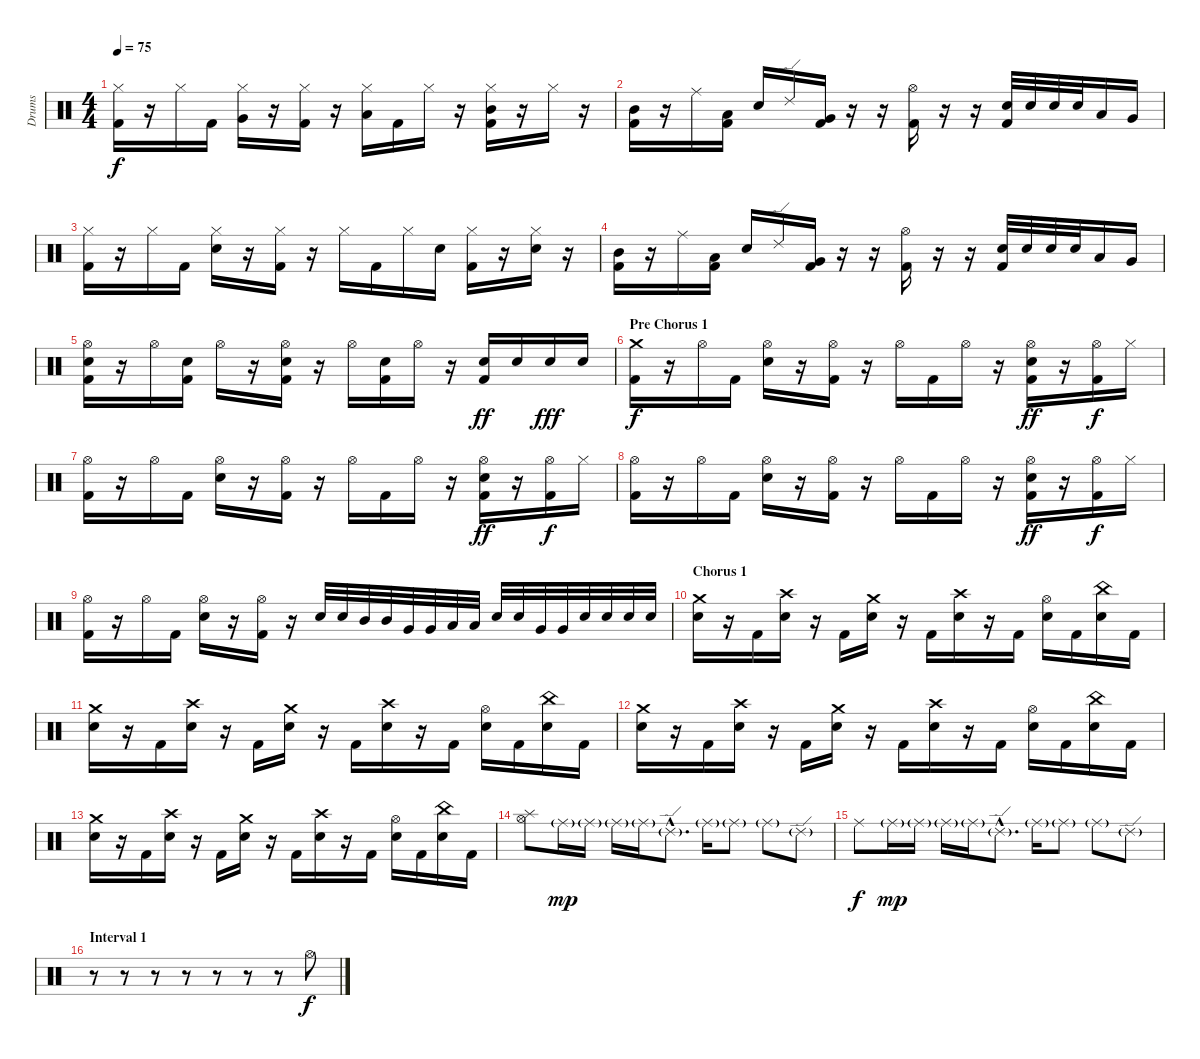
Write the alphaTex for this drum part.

\track ("Drums" "Drums") {instrument percussion}
\staff {score}
\articulation defaults
\ts (4 4)
\tempo 75
\clef neutral
\ks c
("Hi-Hat (closed)" "Kick (hit) 2").16{dy f} r.16 "Hi-Hat (closed)".16 "Kick (hit) 2".16 ("Hi-Hat (closed)" "Very Low Tom (hit)").16 r.16 ("Hi-Hat (closed)" "Kick (hit) 2").16 r.16 ("Hi-Hat (closed)" "Low Tom (hit)").16 "Kick (hit) 2".16 "Hi-Hat (closed)".16 r.16 ("Mid Tom (hit)" "Hi-Hat (closed)" "Kick (hit) 2").16 r.16 "Hi-Hat (closed)".16 r.16 |
("Mid Tom (hit)" "Kick (hit) 2").16 r.16 "Ride (middle)".16 ("Low Tom (hit)" "Kick (hit) 2").16 "Snare (hit) 2".16 "Ride (edge) 2".16 ("Very Low Tom (hit)" "Kick (hit) 2").16 r.16 r.16 ("Hi-Hat (open)" "Kick (hit) 2").16 r.16 r.16 ("Snare (hit) 2" "Kick (hit) 2").32 "Snare (hit) 2".32 "Snare (hit) 2".32 "Snare (hit) 2".32 "Low Tom (hit)".16 "Very Low Tom (hit)".16 |
("Hi-Hat (closed)" "Kick (hit) 2").16 r.16 "Hi-Hat (closed)".16 "Kick (hit) 2".16 ("Hi-Hat (closed)" "Snare (hit) 2").16 r.16 ("Hi-Hat (closed)" "Kick (hit) 2").16 r.16 "Hi-Hat (closed)".16 "Kick (hit) 2".16 "Hi-Hat (closed)".16 "Snare (hit) 2".16 ("Hi-Hat (closed)" "Kick (hit) 2").16 r.16 ("Hi-Hat (closed)" "Snare (hit) 2").16 r.16 |
("Mid Tom (hit)" "Kick (hit) 2").16 r.16 "Ride (middle)".16 ("Low Tom (hit)" "Kick (hit) 2").16 "Snare (hit) 2".16 "Ride (edge) 2".16 ("Very Low Tom (hit)" "Kick (hit) 2").16 r.16 r.16 ("Hi-Hat (open)" "Kick (hit) 2").16 r.16 r.16 ("Snare (hit) 2" "Kick (hit) 2").32 "Snare (hit) 2".32 "Snare (hit) 2".32 "Snare (hit) 2".32 "Low Tom (hit)".16 "Very Low Tom (hit)".16 |
("Hi-Hat (open)" "Snare (hit) 2" "Kick (hit) 2").16 r.16 "Hi-Hat (open)".16 ("Snare (hit) 2" "Kick (hit) 2").16 "Hi-Hat (open)".16 r.16 ("Hi-Hat (open)" "Snare (hit) 2" "Kick (hit) 2").16 r.16 "Hi-Hat (open)".16 ("Snare (hit) 2" "Kick (hit) 2").16 "Hi-Hat (open)".16 r.16 ("Snare (hit) 2" "Kick (hit) 2").16{dy ff} "Snare (hit) 2".16 "Snare (hit) 2".16{dy fff} "Snare (hit) 2".16 |
\section ("" "Pre Chorus 1")
("Crash medium (hit)" "Kick (hit) 2").16{dy f} r.16 "Hi-Hat (open)".16 "Kick (hit) 2".16 ("Hi-Hat (open)" "Snare (hit) 2").16 r.16 ("Hi-Hat (open)" "Kick (hit) 2").16 r.16 "Hi-Hat (open)".16 "Kick (hit) 2".16 "Hi-Hat (open)".16 r.16 ("Hi-Hat (open)" "Snare (hit) 2" "Kick (hit) 2").16{dy ff} r.16 ("Hi-Hat (open)" "Kick (hit) 2").16{dy f} "Hi-Hat (closed)".16 |
("Hi-Hat (open)" "Kick (hit) 2").16 r.16 "Hi-Hat (open)".16 "Kick (hit) 2".16 ("Hi-Hat (open)" "Snare (hit) 2").16 r.16 ("Hi-Hat (open)" "Kick (hit) 2").16 r.16 "Hi-Hat (open)".16 "Kick (hit) 2".16 "Hi-Hat (open)".16 r.16 ("Hi-Hat (open)" "Snare (hit) 2" "Kick (hit) 2").16{dy ff} r.16 ("Hi-Hat (open)" "Kick (hit) 2").16{dy f} "Hi-Hat (closed)".16 |
("Hi-Hat (open)" "Kick (hit) 2").16 r.16 "Hi-Hat (open)".16 "Kick (hit) 2".16 ("Hi-Hat (open)" "Snare (hit) 2").16 r.16 ("Hi-Hat (open)" "Kick (hit) 2").16 r.16 "Hi-Hat (open)".16 "Kick (hit) 2".16 "Hi-Hat (open)".16 r.16 ("Hi-Hat (open)" "Snare (hit) 2" "Kick (hit) 2").16{dy ff} r.16 ("Hi-Hat (open)" "Kick (hit) 2").16{dy f} "Hi-Hat (closed)".16 |
("Hi-Hat (open)" "Kick (hit) 2").16 r.16 "Hi-Hat (open)".16 "Kick (hit) 2".16 ("Hi-Hat (open)" "Snare (hit) 2").16 r.16 ("Hi-Hat (open)" "Kick (hit) 2").16 r.16 "Snare (hit) 2".32 "Snare (hit) 2".32 "Mid Tom (hit)".32 "Mid Tom (hit)".32 "Very Low Tom (hit)".32 "Very Low Tom (hit)".32 "Low Tom (hit)".32 "Low Tom (hit)".32 "Snare (hit) 2".32 "Snare (hit) 2".32 "Very Low Tom (hit)".32 "Very Low Tom (hit)".32 "Snare (hit) 2".32 "Snare (hit) 2".32 "Snare (hit) 2".32 "Snare (hit) 2".32 |
\section ("" "Chorus 1")
("Crash medium (hit)" "Snare (hit) 2").16 r.16 "Kick (hit) 2".16 ("Crash high (hit)" "Snare (hit) 2").16 r.16 "Kick (hit) 2".16 ("Crash medium (hit)" "Snare (hit) 2").16 r.16 "Kick (hit) 2".16 ("Crash high (hit)" "Snare (hit) 2").16 r.16 "Kick (hit) 2".16 ("Hi-Hat (open)" "Snare (hit) 2").16 "Kick (hit) 2".16 ("China (hit)" "Snare (hit) 2").16 "Kick (hit) 2".16 |
("Crash medium (hit)" "Snare (hit) 2").16 r.16 "Kick (hit) 2".16 ("Crash high (hit)" "Snare (hit) 2").16 r.16 "Kick (hit) 2".16 ("Crash medium (hit)" "Snare (hit) 2").16 r.16 "Kick (hit) 2".16 ("Crash high (hit)" "Snare (hit) 2").16 r.16 "Kick (hit) 2".16 ("Hi-Hat (open)" "Snare (hit) 2").16 "Kick (hit) 2".16 ("China (hit)" "Snare (hit) 2").16 "Kick (hit) 2".16 |
("Crash medium (hit)" "Snare (hit) 2").16 r.16 "Kick (hit) 2".16 ("Crash high (hit)" "Snare (hit) 2").16 r.16 "Kick (hit) 2".16 ("Crash medium (hit)" "Snare (hit) 2").16 r.16 "Kick (hit) 2".16 ("Crash high (hit)" "Snare (hit) 2").16 r.16 "Kick (hit) 2".16 ("Hi-Hat (open)" "Snare (hit) 2").16 "Kick (hit) 2".16 ("China (hit)" "Snare (hit) 2").16 "Kick (hit) 2".16 |
("Crash medium (hit)" "Snare (hit) 2").16 r.16 "Kick (hit) 2".16 ("Crash high (hit)" "Snare (hit) 2").16 r.16 "Kick (hit) 2".16 ("Crash medium (hit)" "Snare (hit) 2").16 r.16 "Kick (hit) 2".16 ("Crash high (hit)" "Snare (hit) 2").16 r.16 "Kick (hit) 2".16 ("Hi-Hat (open)" "Snare (hit) 2").16 "Kick (hit) 2".16 ("China (hit)" "Snare (hit) 2").16 "Kick (hit) 2".16 |
("Splash (hit)" "Hi-Hat (open)").8 "Ride (middle)"{g}.16{dy mp} "Ride (middle)"{g}.16 "Ride (middle)"{g}.16 "Ride (middle)"{g}.16 "Ride (edge) 2"{g hac}.8{d} "Ride (middle)"{g}.16 "Ride (middle)"{g}.8 "Ride (middle)"{g}.8 "Ride (edge) 2"{g}.8 |
"Ride (middle)".8{dy f} "Ride (middle)"{g}.16{dy mp} "Ride (middle)"{g}.16 "Ride (middle)"{g}.16 "Ride (middle)"{g}.16 "Ride (edge) 2"{g hac}.8{d} "Ride (middle)"{g}.16 "Ride (middle)"{g}.8 "Ride (middle)"{g}.8 "Ride (edge) 2"{g}.8 |
\section ("" "Interval 1")
r.8 r.8 r.8 r.8 r.8 r.8 r.8 "Hi-Hat (open)".8{dy f}
